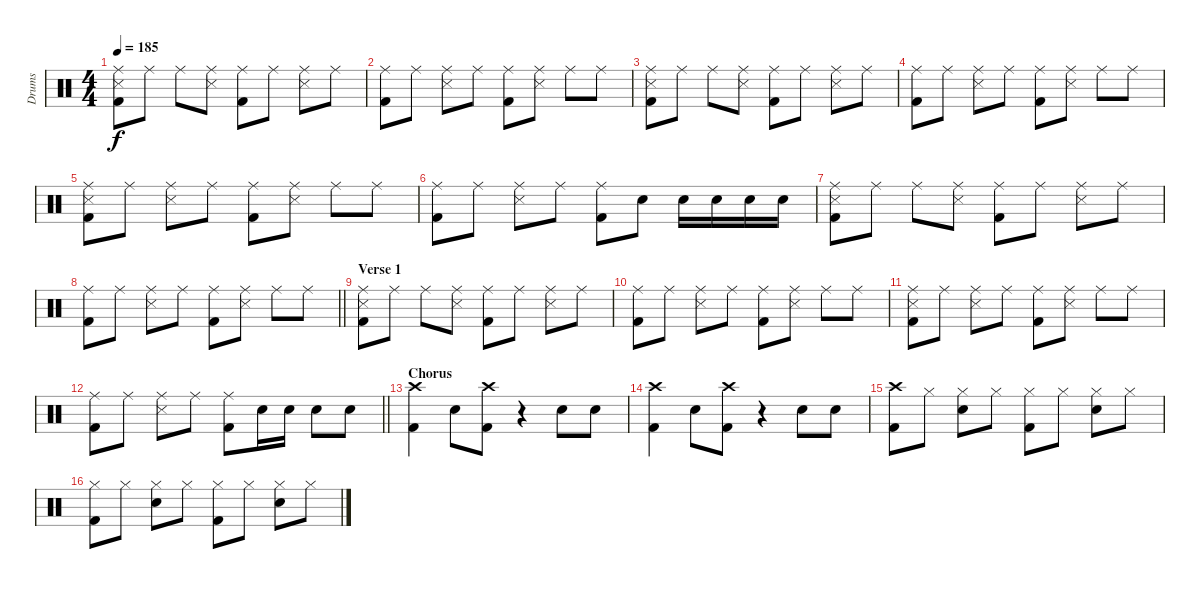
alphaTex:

\track ("Drums" "Drums") {instrument percussion}
\staff {score}
\articulation defaults
\ts (4 4)
\tempo 185
\clef neutral
\ks c
("Ride (middle)" "Snare (side stick) 3" "Kick (hit) 2").8{dy f} "Ride (middle)".8 "Ride (middle)".8 ("Ride (middle)" "Snare (side stick) 3").8 ("Ride (middle)" "Kick (hit) 2").8 "Ride (middle)".8 ("Ride (middle)" "Snare (side stick) 3").8 "Ride (middle)".8 |
("Ride (middle)" "Kick (hit) 2").8 "Ride (middle)".8 ("Ride (middle)" "Snare (side stick) 3").8 "Ride (middle)".8 ("Ride (middle)" "Kick (hit) 2").8 ("Ride (middle)" "Snare (side stick) 3").8 "Ride (middle)".8 "Ride (middle)".8 |
("Ride (middle)" "Snare (side stick) 3" "Kick (hit) 2").8 "Ride (middle)".8 "Ride (middle)".8 ("Ride (middle)" "Snare (side stick) 3").8 ("Ride (middle)" "Kick (hit) 2").8 "Ride (middle)".8 ("Ride (middle)" "Snare (side stick) 3").8 "Ride (middle)".8 |
("Ride (middle)" "Kick (hit) 2").8 "Ride (middle)".8 ("Ride (middle)" "Snare (side stick) 3").8 "Ride (middle)".8 ("Ride (middle)" "Kick (hit) 2").8 ("Ride (middle)" "Snare (side stick) 3").8 "Ride (middle)".8 "Ride (middle)".8 |
("Ride (middle)" "Snare (side stick) 3" "Kick (hit) 2").8 "Ride (middle)".8 ("Ride (middle)" "Snare (side stick) 3").8 "Ride (middle)".8 ("Ride (middle)" "Kick (hit) 2").8 ("Ride (middle)" "Snare (side stick) 3").8 "Ride (middle)".8 "Ride (middle)".8 |
("Ride (middle)" "Kick (hit) 2").8 "Ride (middle)".8 ("Ride (middle)" "Snare (side stick) 3").8 "Ride (middle)".8 ("Ride (middle)" "Kick (hit) 2").8 "Snare (hit) 2".8 "Snare (hit) 2".16 "Snare (hit) 2".16 "Snare (hit) 2".16 "Snare (hit) 2".16 |
("Ride (middle)" "Snare (side stick) 3" "Kick (hit) 2").8 "Ride (middle)".8 "Ride (middle)".8 ("Ride (middle)" "Snare (side stick) 3").8 ("Ride (middle)" "Kick (hit) 2").8 "Ride (middle)".8 ("Ride (middle)" "Snare (side stick) 3").8 "Ride (middle)".8 |
\barLineRight lightlight
("Ride (middle)" "Kick (hit) 2").8 "Ride (middle)".8 ("Ride (middle)" "Snare (side stick) 3").8 "Ride (middle)".8 ("Ride (middle)" "Kick (hit) 2").8 ("Ride (middle)" "Snare (side stick) 3").8 "Ride (middle)".8 "Ride (middle)".8 |
\section ("" "Verse 1")
("Ride (middle)" "Snare (side stick) 3" "Kick (hit) 2").8 "Ride (middle)".8 "Ride (middle)".8 ("Ride (middle)" "Snare (side stick) 3").8 ("Ride (middle)" "Kick (hit) 2").8 "Ride (middle)".8 ("Ride (middle)" "Snare (side stick) 3").8 "Ride (middle)".8 |
("Ride (middle)" "Kick (hit) 2").8 "Ride (middle)".8 ("Ride (middle)" "Snare (side stick) 3").8 "Ride (middle)".8 ("Ride (middle)" "Kick (hit) 2").8 ("Ride (middle)" "Snare (side stick) 3").8 "Ride (middle)".8 "Ride (middle)".8 |
("Ride (middle)" "Snare (side stick) 3" "Kick (hit) 2").8 "Ride (middle)".8 ("Ride (middle)" "Snare (side stick) 3").8 "Ride (middle)".8 ("Ride (middle)" "Kick (hit) 2").8 ("Ride (middle)" "Snare (side stick) 3").8 "Ride (middle)".8 "Ride (middle)".8 |
\barLineRight lightlight
("Ride (middle)" "Kick (hit) 2").8 "Ride (middle)".8 ("Ride (middle)" "Snare (side stick) 3").8 "Ride (middle)".8 ("Ride (middle)" "Kick (hit) 2").8 "Snare (hit) 2".16 "Snare (hit) 2".16 "Snare (hit) 2".8 "Snare (hit) 2".8 |
\section ("" "Chorus")
("Crash high (hit)" "Kick (hit) 2").4 "Snare (hit) 2".8 ("Crash high (hit)" "Kick (hit) 2").8 r.4 "Snare (hit) 2".8 "Snare (hit) 2".8 |
("Crash high (hit)" "Kick (hit) 2").4 "Snare (hit) 2".8 ("Crash high (hit)" "Kick (hit) 2").8 r.4 "Snare (hit) 2".8 "Snare (hit) 2".8 |
("Crash high (hit)" "Kick (hit) 2").8 "Hi-Hat (closed)".8 ("Hi-Hat (closed)" "Snare (hit) 2").8 "Hi-Hat (closed)".8 ("Hi-Hat (closed)" "Kick (hit) 2").8 "Hi-Hat (closed)".8 ("Hi-Hat (closed)" "Snare (hit) 2").8 "Hi-Hat (closed)".8 |
("Hi-Hat (closed)" "Kick (hit) 2").8 "Hi-Hat (closed)".8 ("Hi-Hat (closed)" "Snare (hit) 2").8 "Hi-Hat (closed)".8 ("Hi-Hat (closed)" "Kick (hit) 2").8 "Hi-Hat (closed)".8 ("Hi-Hat (closed)" "Snare (hit) 2").8 "Hi-Hat (closed)".8
